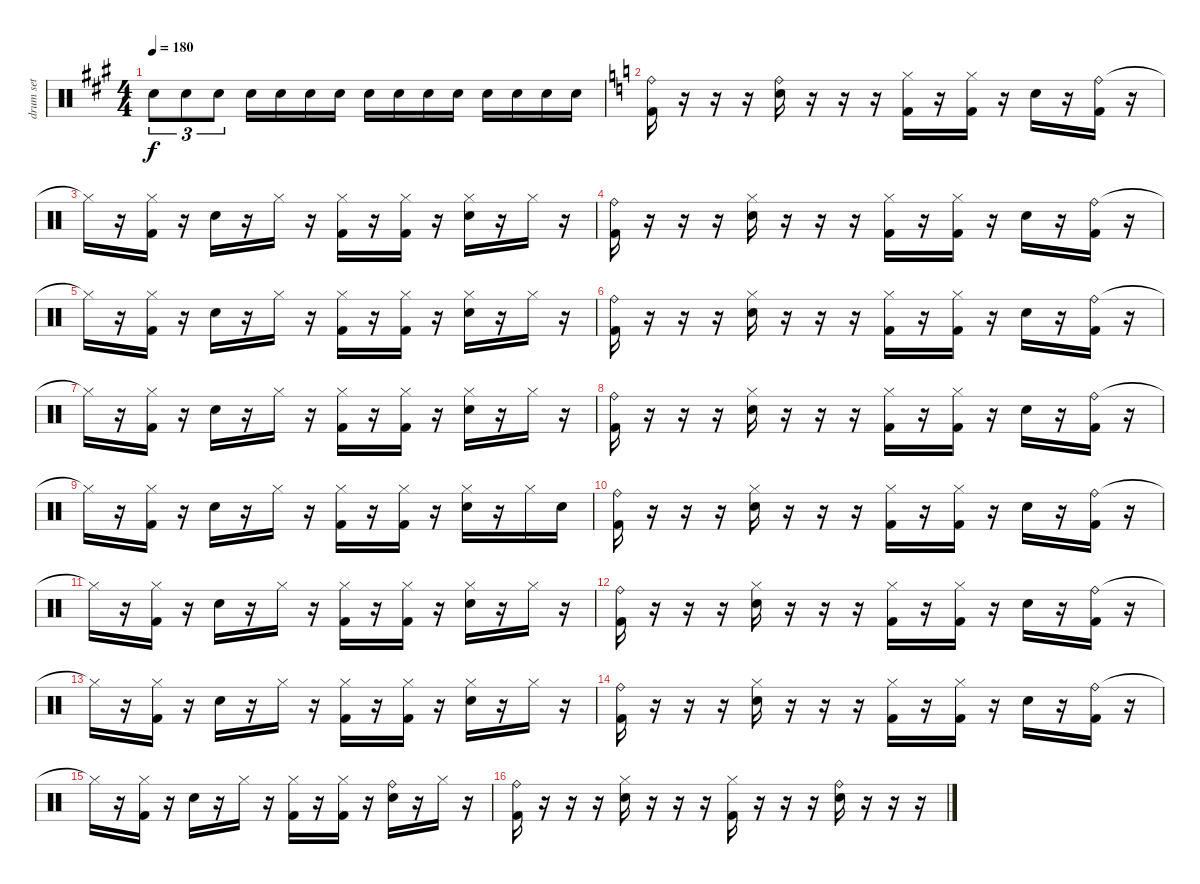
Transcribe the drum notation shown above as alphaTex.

\track ("drum set" "drum set") {instrument percussion}
\staff {score}
\articulation defaults
\ts (4 4)
\tempo 180
\clef neutral
\ks a "Snare (hit) 2".8{tu (3 2) dy f} "Snare (hit) 2".8{tu (3 2)} "Snare (hit) 2".8{tu (3 2)} "Snare (hit) 2".16 "Snare (hit) 2".16 "Snare (hit) 2".16 "Snare (hit) 2".16 "Snare (hit) 2".16 "Snare (hit) 2".16 "Snare (hit) 2".16 "Snare (hit) 2".16 "Snare (hit) 2".16 "Snare (hit) 2".16 "Snare (hit) 2".16 "Snare (hit) 2".16
|
\ks c
("Ride (bell)" "Kick (hit) 2").16 r.16 r.16 r.16 ("Ride (bell)" "Snare (hit) 2").16 r.16 r.16 r.16 ("Hi-Hat (closed)" "Kick (hit) 2").16 r.16 ("Hi-Hat (closed)" "Kick (hit) 2").16 r.16 "Snare (hit) 2".16 r.16 ("Ride (bell)" "Kick (hit) 2").16 r.16 |
"Hi-Hat (closed)"{t}.16 r.16 ("Hi-Hat (closed)" "Kick (hit) 2").16 r.16 "Snare (hit) 2".16 r.16 "Hi-Hat (closed)".16 r.16 ("Hi-Hat (closed)" "Kick (hit) 2").16 r.16 ("Hi-Hat (closed)" "Kick (hit) 2").16 r.16 ("Hi-Hat (closed)" "Snare (hit) 2").16 r.16 "Hi-Hat (closed)".16 r.16 |
("Ride (bell)" "Kick (hit) 2").16 r.16 r.16 r.16 ("Hi-Hat (closed)" "Snare (hit) 2").16 r.16 r.16 r.16 ("Hi-Hat (closed)" "Kick (hit) 2").16 r.16 ("Hi-Hat (closed)" "Kick (hit) 2").16 r.16 "Snare (hit) 2".16 r.16 ("Ride (bell)" "Kick (hit) 2").16 r.16 |
"Hi-Hat (closed)"{t}.16 r.16 ("Hi-Hat (closed)" "Kick (hit) 2").16 r.16 "Snare (hit) 2".16 r.16 "Hi-Hat (closed)".16 r.16 ("Hi-Hat (closed)" "Kick (hit) 2").16 r.16 ("Hi-Hat (closed)" "Kick (hit) 2").16 r.16 ("Hi-Hat (closed)" "Snare (hit) 2").16 r.16 "Hi-Hat (closed)".16 r.16 |
("Ride (bell)" "Kick (hit) 2").16 r.16 r.16 r.16 ("Hi-Hat (closed)" "Snare (hit) 2").16 r.16 r.16 r.16 ("Hi-Hat (closed)" "Kick (hit) 2").16 r.16 ("Hi-Hat (closed)" "Kick (hit) 2").16 r.16 "Snare (hit) 2".16 r.16 ("Ride (bell)" "Kick (hit) 2").16 r.16 |
"Hi-Hat (closed)"{t}.16 r.16 ("Hi-Hat (closed)" "Kick (hit) 2").16 r.16 "Snare (hit) 2".16 r.16 "Hi-Hat (closed)".16 r.16 ("Hi-Hat (closed)" "Kick (hit) 2").16 r.16 ("Hi-Hat (closed)" "Kick (hit) 2").16 r.16 ("Hi-Hat (closed)" "Snare (hit) 2").16 r.16 "Hi-Hat (closed)".16 r.16 |
("Ride (bell)" "Kick (hit) 2").16 r.16 r.16 r.16 ("Hi-Hat (closed)" "Snare (hit) 2").16 r.16 r.16 r.16 ("Hi-Hat (closed)" "Kick (hit) 2").16 r.16 ("Hi-Hat (closed)" "Kick (hit) 2").16 r.16 "Snare (hit) 2".16 r.16 ("Ride (bell)" "Kick (hit) 2").16 r.16 |
"Hi-Hat (closed)"{t}.16 r.16 ("Hi-Hat (closed)" "Kick (hit) 2").16 r.16 "Snare (hit) 2".16 r.16 "Hi-Hat (closed)".16 r.16 ("Hi-Hat (closed)" "Kick (hit) 2").16 r.16 ("Hi-Hat (closed)" "Kick (hit) 2").16 r.16 ("Hi-Hat (closed)" "Snare (hit) 2").16 r.16 "Hi-Hat (closed)".16 "Snare (hit) 2".16 |
("Ride (bell)" "Kick (hit) 2").16 r.16 r.16 r.16 ("Hi-Hat (closed)" "Snare (hit) 2").16 r.16 r.16 r.16 ("Hi-Hat (closed)" "Kick (hit) 2").16 r.16 ("Hi-Hat (closed)" "Kick (hit) 2").16 r.16 "Snare (hit) 2".16 r.16 ("Ride (bell)" "Kick (hit) 2").16 r.16 |
"Hi-Hat (closed)"{t}.16 r.16 ("Hi-Hat (closed)" "Kick (hit) 2").16 r.16 "Snare (hit) 2".16 r.16 "Hi-Hat (closed)".16 r.16 ("Hi-Hat (closed)" "Kick (hit) 2").16 r.16 ("Hi-Hat (closed)" "Kick (hit) 2").16 r.16 ("Hi-Hat (closed)" "Snare (hit) 2").16 r.16 "Hi-Hat (closed)".16 r.16 |
("Ride (bell)" "Kick (hit) 2").16 r.16 r.16 r.16 ("Hi-Hat (closed)" "Snare (hit) 2").16 r.16 r.16 r.16 ("Hi-Hat (closed)" "Kick (hit) 2").16 r.16 ("Hi-Hat (closed)" "Kick (hit) 2").16 r.16 "Snare (hit) 2".16 r.16 ("Ride (bell)" "Kick (hit) 2").16 r.16 |
"Hi-Hat (closed)"{t}.16 r.16 ("Hi-Hat (closed)" "Kick (hit) 2").16 r.16 "Snare (hit) 2".16 r.16 "Hi-Hat (closed)".16 r.16 ("Hi-Hat (closed)" "Kick (hit) 2").16 r.16 ("Hi-Hat (closed)" "Kick (hit) 2").16 r.16 ("Hi-Hat (closed)" "Snare (hit) 2").16 r.16 "Hi-Hat (closed)".16 r.16 |
("Ride (bell)" "Kick (hit) 2").16 r.16 r.16 r.16 ("Hi-Hat (closed)" "Snare (hit) 2").16 r.16 r.16 r.16 ("Hi-Hat (closed)" "Kick (hit) 2").16 r.16 ("Hi-Hat (closed)" "Kick (hit) 2").16 r.16 "Snare (hit) 2".16 r.16 ("Ride (bell)" "Kick (hit) 2").16 r.16 |
"Hi-Hat (closed)"{t}.16 r.16 ("Hi-Hat (closed)" "Kick (hit) 2").16 r.16 "Snare (hit) 2".16 r.16 "Hi-Hat (closed)".16 r.16 ("Hi-Hat (closed)" "Kick (hit) 2").16 r.16 ("Hi-Hat (closed)" "Kick (hit) 2").16 r.16 ("Ride (bell)" "Snare (hit) 2").16 r.16 "Hi-Hat (closed)".16 r.16 |
("Ride (bell)" "Kick (hit) 2").16 r.16 r.16 r.16 ("Hi-Hat (closed)" "Snare (hit) 2").16 r.16 r.16 r.16 ("Hi-Hat (closed)" "Kick (hit) 2").16 r.16 r.16 r.16 ("Ride (bell)" "Snare (hit) 2").16 r.16 r.16 r.16
